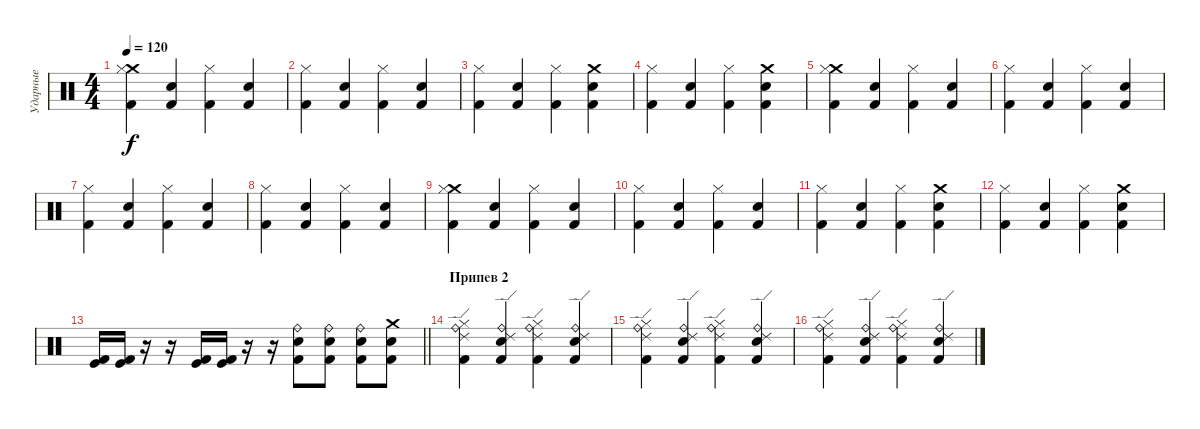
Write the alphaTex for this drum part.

\track ("Ударные" "Ударные") {instrument percussion}
\staff {score}
\articulation defaults
\ts (4 4)
\tempo 120
\clef neutral
\ks c
("Crash medium (hit)" "Hi-Hat (closed)" "Kick (hit) 2").4{dy f} ("Snare (hit) 2" "Kick (hit) 2").4 ("Hi-Hat (closed)" "Kick (hit) 2").4 ("Snare (hit) 2" "Kick (hit) 2").4 |
("Hi-Hat (closed)" "Kick (hit) 2").4 ("Snare (hit) 2" "Kick (hit) 2").4 ("Hi-Hat (closed)" "Kick (hit) 2").4 ("Snare (hit) 2" "Kick (hit) 2").4 |
("Hi-Hat (closed)" "Kick (hit) 2").4 ("Snare (hit) 2" "Kick (hit) 2").4 ("Hi-Hat (closed)" "Kick (hit) 2").4 ("Crash medium (hit)" "Snare (hit) 2" "Kick (hit) 2").4 |
("Hi-Hat (closed)" "Kick (hit) 2").4 ("Snare (hit) 2" "Kick (hit) 2").4 ("Hi-Hat (closed)" "Kick (hit) 2").4 ("Crash medium (hit)" "Snare (hit) 2" "Kick (hit) 2").4 |
("Crash medium (hit)" "Hi-Hat (closed)" "Kick (hit) 2").4 ("Snare (hit) 2" "Kick (hit) 2").4 ("Hi-Hat (closed)" "Kick (hit) 2").4 ("Snare (hit) 2" "Kick (hit) 2").4 |
("Hi-Hat (closed)" "Kick (hit) 2").4 ("Snare (hit) 2" "Kick (hit) 2").4 ("Hi-Hat (closed)" "Kick (hit) 2").4 ("Snare (hit) 2" "Kick (hit) 2").4 |
("Hi-Hat (closed)" "Kick (hit) 2").4 ("Snare (hit) 2" "Kick (hit) 2").4 ("Hi-Hat (closed)" "Kick (hit) 2").4 ("Snare (hit) 2" "Kick (hit) 2").4 |
("Hi-Hat (closed)" "Kick (hit) 2").4 ("Snare (hit) 2" "Kick (hit) 2").4 ("Hi-Hat (closed)" "Kick (hit) 2").4 ("Snare (hit) 2" "Kick (hit) 2").4 |
("Crash medium (hit)" "Hi-Hat (closed)" "Kick (hit) 2").4 ("Snare (hit) 2" "Kick (hit) 2").4 ("Hi-Hat (closed)" "Kick (hit) 2").4 ("Snare (hit) 2" "Kick (hit) 2").4 |
("Hi-Hat (closed)" "Kick (hit) 2").4 ("Snare (hit) 2" "Kick (hit) 2").4 ("Hi-Hat (closed)" "Kick (hit) 2").4 ("Snare (hit) 2" "Kick (hit) 2").4 |
("Hi-Hat (closed)" "Kick (hit) 2").4 ("Snare (hit) 2" "Kick (hit) 2").4 ("Hi-Hat (closed)" "Kick (hit) 2").4 ("Crash medium (hit)" "Snare (hit) 2" "Kick (hit) 2").4 |
("Hi-Hat (closed)" "Kick (hit) 2").4 ("Snare (hit) 2" "Kick (hit) 2").4 ("Hi-Hat (closed)" "Kick (hit) 2").4 ("Crash medium (hit)" "Snare (hit) 2" "Kick (hit) 2").4 |
\barLineRight lightlight
("Kick (hit)" "Kick (hit) 2").16 ("Kick (hit)" "Kick (hit) 2").16 r.16 r.16 ("Kick (hit)" "Kick (hit) 2").16 ("Kick (hit)" "Kick (hit) 2").16 r.16 r.16 ("Ride (bell)" "Snare (hit) 2" "Kick (hit) 2").8 ("Ride (bell)" "Snare (hit) 2" "Kick (hit) 2").8 ("Ride (bell)" "Snare (hit) 2" "Kick (hit) 2").8 ("Crash medium (hit)" "Snare (hit) 2" "Kick (hit) 2").8 |
\section ("" "Припев 2")
("Ride (bell)" "Ride (edge) 2" "Hi-Hat (closed)" "Kick (hit) 2").4 ("Ride (bell)" "Ride (edge) 2" "Snare (hit) 2" "Kick (hit) 2").4 ("Ride (bell)" "Ride (edge) 2" "Hi-Hat (closed)" "Kick (hit) 2").4 ("Ride (bell)" "Ride (edge) 2" "Snare (hit) 2" "Kick (hit) 2").4 |
("Ride (bell)" "Ride (edge) 2" "Hi-Hat (closed)" "Kick (hit) 2").4 ("Ride (bell)" "Ride (edge) 2" "Snare (hit) 2" "Kick (hit) 2").4 ("Ride (bell)" "Ride (edge) 2" "Hi-Hat (closed)" "Kick (hit) 2").4 ("Ride (bell)" "Ride (edge) 2" "Snare (hit) 2" "Kick (hit) 2").4 |
("Ride (bell)" "Ride (edge) 2" "Hi-Hat (closed)" "Kick (hit) 2").4 ("Ride (bell)" "Ride (edge) 2" "Snare (hit) 2" "Kick (hit) 2").4 ("Ride (bell)" "Ride (edge) 2" "Hi-Hat (closed)" "Kick (hit) 2").4 ("Ride (bell)" "Ride (edge) 2" "Snare (hit) 2" "Kick (hit) 2").4
